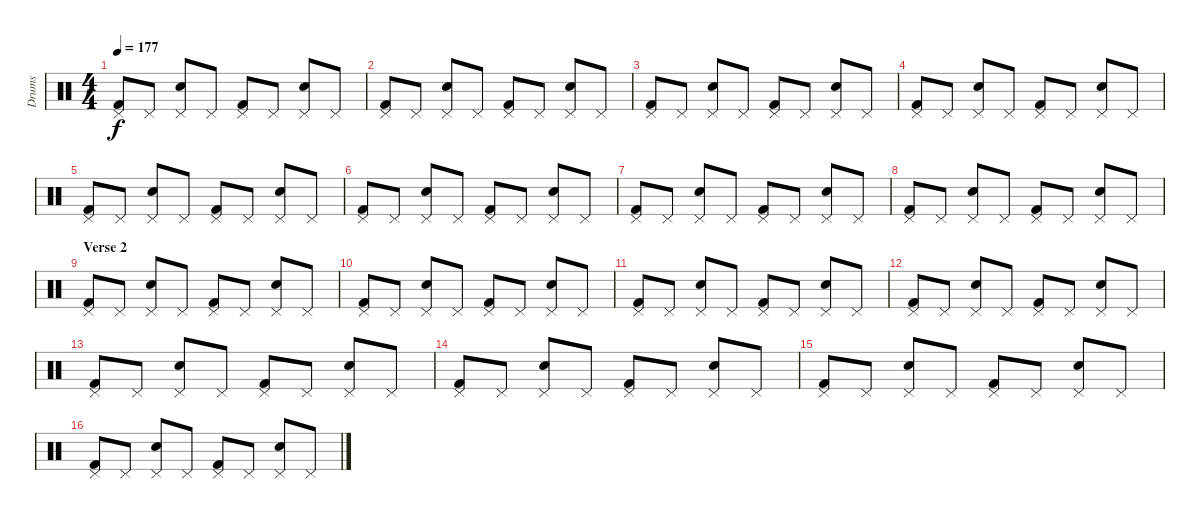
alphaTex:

\track ("Drums" "Drums") {instrument percussion}
\staff {score}
\articulation defaults
\ts (4 4)
\tempo 177
\clef neutral
\ks c
("Pedal Hi-Hat (hit)" "Kick (hit) 2").8{dy f} "Pedal Hi-Hat (hit)".8 ("Pedal Hi-Hat (hit)" "Electric Snare (hit)").8 "Pedal Hi-Hat (hit)".8 ("Pedal Hi-Hat (hit)" "Kick (hit) 2").8 "Pedal Hi-Hat (hit)".8 ("Pedal Hi-Hat (hit)" "Electric Snare (hit)").8 "Pedal Hi-Hat (hit)".8 |
("Pedal Hi-Hat (hit)" "Kick (hit) 2").8 "Pedal Hi-Hat (hit)".8 ("Pedal Hi-Hat (hit)" "Electric Snare (hit)").8 "Pedal Hi-Hat (hit)".8 ("Pedal Hi-Hat (hit)" "Kick (hit) 2").8 "Pedal Hi-Hat (hit)".8 ("Pedal Hi-Hat (hit)" "Electric Snare (hit)").8 "Pedal Hi-Hat (hit)".8 |
("Pedal Hi-Hat (hit)" "Kick (hit) 2").8 "Pedal Hi-Hat (hit)".8 ("Pedal Hi-Hat (hit)" "Electric Snare (hit)").8 "Pedal Hi-Hat (hit)".8 ("Pedal Hi-Hat (hit)" "Kick (hit) 2").8 "Pedal Hi-Hat (hit)".8 ("Pedal Hi-Hat (hit)" "Electric Snare (hit)").8 "Pedal Hi-Hat (hit)".8 |
("Pedal Hi-Hat (hit)" "Kick (hit) 2").8 "Pedal Hi-Hat (hit)".8 ("Pedal Hi-Hat (hit)" "Electric Snare (hit)").8 "Pedal Hi-Hat (hit)".8 ("Pedal Hi-Hat (hit)" "Kick (hit) 2").8 "Pedal Hi-Hat (hit)".8 ("Pedal Hi-Hat (hit)" "Electric Snare (hit)").8 "Pedal Hi-Hat (hit)".8 |
("Pedal Hi-Hat (hit)" "Kick (hit) 2").8 "Pedal Hi-Hat (hit)".8 ("Pedal Hi-Hat (hit)" "Electric Snare (hit)").8 "Pedal Hi-Hat (hit)".8 ("Pedal Hi-Hat (hit)" "Kick (hit) 2").8 "Pedal Hi-Hat (hit)".8 ("Pedal Hi-Hat (hit)" "Electric Snare (hit)").8 "Pedal Hi-Hat (hit)".8 |
("Pedal Hi-Hat (hit)" "Kick (hit) 2").8 "Pedal Hi-Hat (hit)".8 ("Pedal Hi-Hat (hit)" "Electric Snare (hit)").8 "Pedal Hi-Hat (hit)".8 ("Pedal Hi-Hat (hit)" "Kick (hit) 2").8 "Pedal Hi-Hat (hit)".8 ("Pedal Hi-Hat (hit)" "Electric Snare (hit)").8 "Pedal Hi-Hat (hit)".8 |
("Pedal Hi-Hat (hit)" "Kick (hit) 2").8 "Pedal Hi-Hat (hit)".8 ("Pedal Hi-Hat (hit)" "Electric Snare (hit)").8 "Pedal Hi-Hat (hit)".8 ("Pedal Hi-Hat (hit)" "Kick (hit) 2").8 "Pedal Hi-Hat (hit)".8 ("Pedal Hi-Hat (hit)" "Electric Snare (hit)").8 "Pedal Hi-Hat (hit)".8 |
("Pedal Hi-Hat (hit)" "Kick (hit) 2").8 "Pedal Hi-Hat (hit)".8 ("Pedal Hi-Hat (hit)" "Electric Snare (hit)").8 "Pedal Hi-Hat (hit)".8 ("Pedal Hi-Hat (hit)" "Kick (hit) 2").8 "Pedal Hi-Hat (hit)".8 ("Pedal Hi-Hat (hit)" "Electric Snare (hit)").8 "Pedal Hi-Hat (hit)".8 |
\section ("" "Verse 2 ")
("Pedal Hi-Hat (hit)" "Kick (hit) 2").8 "Pedal Hi-Hat (hit)".8 ("Pedal Hi-Hat (hit)" "Electric Snare (hit)").8 "Pedal Hi-Hat (hit)".8 ("Pedal Hi-Hat (hit)" "Kick (hit) 2").8 "Pedal Hi-Hat (hit)".8 ("Pedal Hi-Hat (hit)" "Electric Snare (hit)").8 "Pedal Hi-Hat (hit)".8 |
("Pedal Hi-Hat (hit)" "Kick (hit) 2").8 "Pedal Hi-Hat (hit)".8 ("Pedal Hi-Hat (hit)" "Electric Snare (hit)").8 "Pedal Hi-Hat (hit)".8 ("Pedal Hi-Hat (hit)" "Kick (hit) 2").8 "Pedal Hi-Hat (hit)".8 ("Pedal Hi-Hat (hit)" "Electric Snare (hit)").8 "Pedal Hi-Hat (hit)".8 |
("Pedal Hi-Hat (hit)" "Kick (hit) 2").8 "Pedal Hi-Hat (hit)".8 ("Pedal Hi-Hat (hit)" "Electric Snare (hit)").8 "Pedal Hi-Hat (hit)".8 ("Pedal Hi-Hat (hit)" "Kick (hit) 2").8 "Pedal Hi-Hat (hit)".8 ("Pedal Hi-Hat (hit)" "Electric Snare (hit)").8 "Pedal Hi-Hat (hit)".8 |
("Pedal Hi-Hat (hit)" "Kick (hit) 2").8 "Pedal Hi-Hat (hit)".8 ("Pedal Hi-Hat (hit)" "Electric Snare (hit)").8 "Pedal Hi-Hat (hit)".8 ("Pedal Hi-Hat (hit)" "Kick (hit) 2").8 "Pedal Hi-Hat (hit)".8 ("Pedal Hi-Hat (hit)" "Electric Snare (hit)").8 "Pedal Hi-Hat (hit)".8 |
("Pedal Hi-Hat (hit)" "Kick (hit) 2").8 "Pedal Hi-Hat (hit)".8 ("Pedal Hi-Hat (hit)" "Electric Snare (hit)").8 "Pedal Hi-Hat (hit)".8 ("Pedal Hi-Hat (hit)" "Kick (hit) 2").8 "Pedal Hi-Hat (hit)".8 ("Pedal Hi-Hat (hit)" "Electric Snare (hit)").8 "Pedal Hi-Hat (hit)".8 |
("Pedal Hi-Hat (hit)" "Kick (hit) 2").8 "Pedal Hi-Hat (hit)".8 ("Pedal Hi-Hat (hit)" "Electric Snare (hit)").8 "Pedal Hi-Hat (hit)".8 ("Pedal Hi-Hat (hit)" "Kick (hit) 2").8 "Pedal Hi-Hat (hit)".8 ("Pedal Hi-Hat (hit)" "Electric Snare (hit)").8 "Pedal Hi-Hat (hit)".8 |
("Pedal Hi-Hat (hit)" "Kick (hit) 2").8 "Pedal Hi-Hat (hit)".8 ("Pedal Hi-Hat (hit)" "Electric Snare (hit)").8 "Pedal Hi-Hat (hit)".8 ("Pedal Hi-Hat (hit)" "Kick (hit) 2").8 "Pedal Hi-Hat (hit)".8 ("Pedal Hi-Hat (hit)" "Electric Snare (hit)").8 "Pedal Hi-Hat (hit)".8 |
("Pedal Hi-Hat (hit)" "Kick (hit) 2").8 "Pedal Hi-Hat (hit)".8 ("Pedal Hi-Hat (hit)" "Electric Snare (hit)").8 "Pedal Hi-Hat (hit)".8 ("Pedal Hi-Hat (hit)" "Kick (hit) 2").8 "Pedal Hi-Hat (hit)".8 ("Pedal Hi-Hat (hit)" "Electric Snare (hit)").8 "Pedal Hi-Hat (hit)".8
